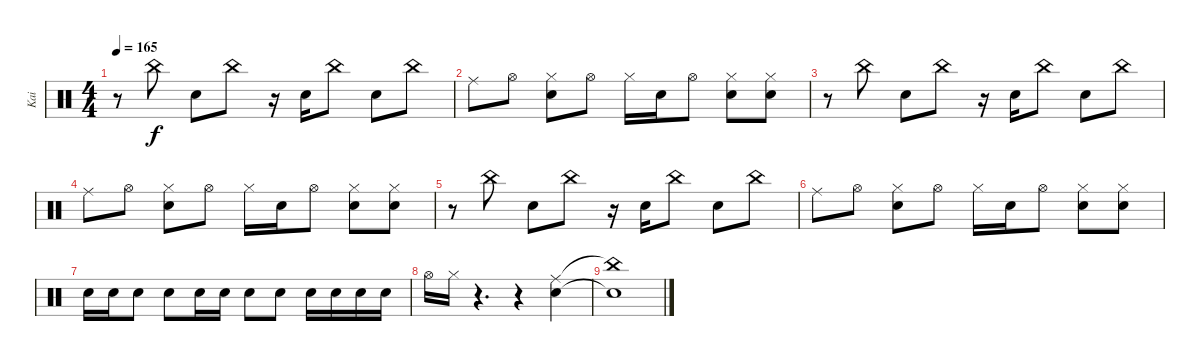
\track ("Kai" "Kai") {instrument percussion}
\staff {score}
\articulation defaults
\ts (4 4)
\tempo 165
\clef neutral
\ks c
r.8{dy f} "China (hit)".8 "Snare (hit) 2".8 "China (hit)".8 r.16 "Snare (hit) 2".16 "China (hit)".8 "Snare (hit) 2".8 "China (hit)".8 |
"Ride (middle)".8 "Hi-Hat (open)".8 ("Hi-Hat (closed)" "Snare (hit) 2").8 "Hi-Hat (open)".8 "Hi-Hat (closed)".16 "Snare (hit) 2".16 "Hi-Hat (open)".8 ("Hi-Hat (closed)" "Snare (hit) 2").8 ("Hi-Hat (closed)" "Snare (hit) 2").8 |
r.8 "China (hit)".8 "Snare (hit) 2".8 "China (hit)".8 r.16 "Snare (hit) 2".16 "China (hit)".8 "Snare (hit) 2".8 "China (hit)".8 |
"Ride (middle)".8 "Hi-Hat (open)".8 ("Hi-Hat (closed)" "Snare (hit) 2").8 "Hi-Hat (open)".8 "Hi-Hat (closed)".16 "Snare (hit) 2".16 "Hi-Hat (open)".8 ("Hi-Hat (closed)" "Snare (hit) 2").8 ("Hi-Hat (closed)" "Snare (hit) 2").8 |
r.8 "China (hit)".8 "Snare (hit) 2".8 "China (hit)".8 r.16 "Snare (hit) 2".16 "China (hit)".8 "Snare (hit) 2".8 "China (hit)".8 |
"Ride (middle)".8 "Hi-Hat (open)".8 ("Hi-Hat (closed)" "Snare (hit) 2").8 "Hi-Hat (open)".8 "Hi-Hat (closed)".16 "Snare (hit) 2".16 "Hi-Hat (open)".8 ("Hi-Hat (closed)" "Snare (hit) 2").8 ("Hi-Hat (closed)" "Snare (hit) 2").8 |
"Snare (hit) 2".16 "Snare (hit) 2".16 "Snare (hit) 2".8 "Snare (hit) 2".8 "Snare (hit) 2".16 "Snare (hit) 2".16 "Snare (hit) 2".8 "Snare (hit) 2".8 "Snare (hit) 2".16 "Snare (hit) 2".16 "Snare (hit) 2".16 "Snare (hit) 2".16 |
"Hi-Hat (open)".16 "Hi-Hat (closed)".16 r.4{d} r.4 ("Ride (middle)" "Snare (hit) 2").4 |
("China (hit)"{t} "Snare (hit) 2"{t}).1
